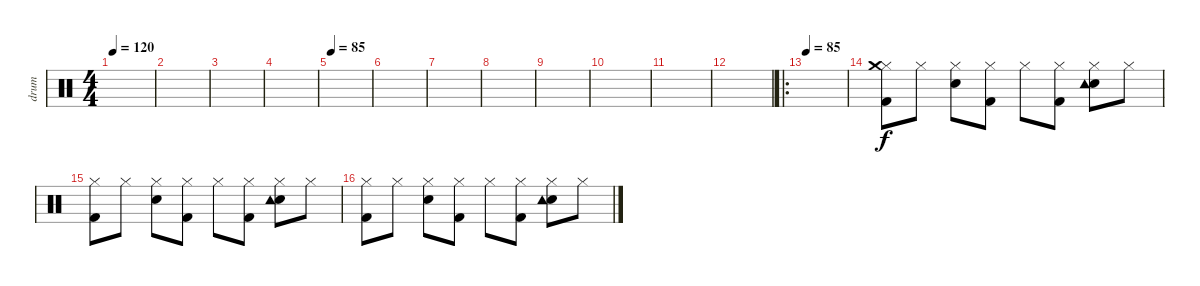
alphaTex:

\track ("drum" "drum") {instrument percussion}
\staff {score}
\articulation defaults
\ts (4 4)
\tempo 120
\tempo 85
\tempo 120
\clef neutral
\ks c
|
|
|
|
\tempo 85
|
|
|
|
|
|
|
|
\ro
\tempo 85
|
("Hi-Hat (closed)" "Crash medium (hit)" "Kick (hit) 2").8 "Hi-Hat (closed)".8 ("Hi-Hat (closed)" "Electric Snare (hit)").8 ("Hi-Hat (closed)" "Kick (hit) 2").8 "Hi-Hat (closed)".8 ("Hi-Hat (closed)" "Kick (hit) 2").8 ("Hi-Hat (closed)" "Electric Snare (hit)" "Tambourine (hit)").8 "Hi-Hat (closed)".8 |
("Hi-Hat (closed)" "Kick (hit) 2").8 "Hi-Hat (closed)".8 ("Hi-Hat (closed)" "Electric Snare (hit)").8 ("Hi-Hat (closed)" "Kick (hit) 2").8 "Hi-Hat (closed)".8 ("Hi-Hat (closed)" "Kick (hit) 2").8 ("Hi-Hat (closed)" "Electric Snare (hit)" "Tambourine (hit)").8 "Hi-Hat (closed)".8 |
("Hi-Hat (closed)" "Kick (hit) 2").8 "Hi-Hat (closed)".8 ("Hi-Hat (closed)" "Electric Snare (hit)").8 ("Hi-Hat (closed)" "Kick (hit) 2").8 "Hi-Hat (closed)".8 ("Hi-Hat (closed)" "Kick (hit) 2").8 ("Hi-Hat (closed)" "Electric Snare (hit)" "Tambourine (hit)").8 "Hi-Hat (closed)".8
